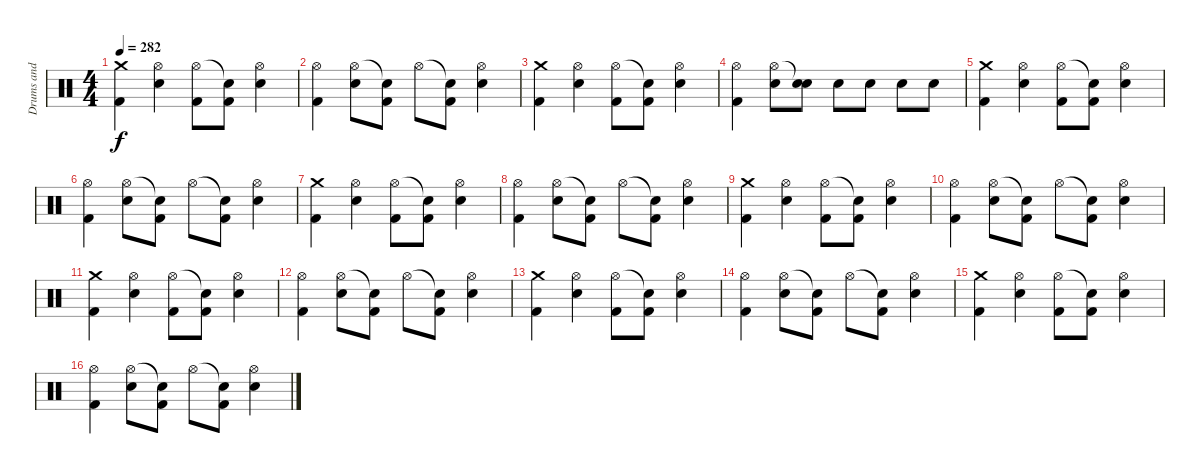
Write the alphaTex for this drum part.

\track ("Drums and Percussion" "Drums and ") {instrument percussion}
\staff {score}
\articulation defaults
\ts (4 4)
\tempo 282
\clef neutral
\ks c
("Crash medium (hit)" "Kick (hit) 2").4{dy f} ("Hi-Hat (open)" "Snare (hit) 2").4 ("Hi-Hat (open)" "Kick (hit) 2").8 ("Snare (hit)"{t} "Kick (hit) 2").8 ("Hi-Hat (open)" "Snare (hit) 2").4 |
("Hi-Hat (open)" "Kick (hit) 2").4 ("Hi-Hat (open)" "Snare (hit) 2").8 ("Snare (hit)"{t} "Kick (hit) 2").8 "Hi-Hat (open)".8 ("Snare (hit)"{t} "Kick (hit) 2").8 ("Hi-Hat (open)" "Snare (hit) 2").4 |
("Crash medium (hit)" "Kick (hit) 2").4 ("Hi-Hat (open)" "Snare (hit) 2").4 ("Hi-Hat (open)" "Kick (hit) 2").8 ("Snare (hit)"{t} "Kick (hit) 2").8 ("Hi-Hat (open)" "Snare (hit) 2").4 |
("Hi-Hat (open)" "Kick (hit) 2").4 ("Hi-Hat (open)" "Snare (hit) 2").8 ("Snare (hit)"{t} "Snare (hit) 2").8 "Snare (hit) 2".8 "Snare (hit) 2".8 "Snare (hit) 2".8 "Snare (hit) 2".8 |
("Crash medium (hit)" "Kick (hit) 2").4 ("Hi-Hat (open)" "Snare (hit) 2").4 ("Hi-Hat (open)" "Kick (hit) 2").8 ("Snare (hit)"{t} "Kick (hit) 2").8 ("Hi-Hat (open)" "Snare (hit) 2").4 |
("Hi-Hat (open)" "Kick (hit) 2").4 ("Hi-Hat (open)" "Snare (hit) 2").8 ("Snare (hit)"{t} "Kick (hit) 2").8 "Hi-Hat (open)".8 ("Snare (hit)"{t} "Kick (hit) 2").8 ("Hi-Hat (open)" "Snare (hit) 2").4 |
("Crash medium (hit)" "Kick (hit) 2").4 ("Hi-Hat (open)" "Snare (hit) 2").4 ("Hi-Hat (open)" "Kick (hit) 2").8 ("Snare (hit)"{t} "Kick (hit) 2").8 ("Hi-Hat (open)" "Snare (hit) 2").4 |
("Hi-Hat (open)" "Kick (hit) 2").4 ("Hi-Hat (open)" "Snare (hit) 2").8 ("Snare (hit)"{t} "Kick (hit) 2").8 "Hi-Hat (open)".8 ("Snare (hit)"{t} "Kick (hit) 2").8 ("Hi-Hat (open)" "Snare (hit) 2").4 |
("Crash medium (hit)" "Kick (hit) 2").4 ("Hi-Hat (open)" "Snare (hit) 2").4 ("Hi-Hat (open)" "Kick (hit) 2").8 ("Snare (hit)"{t} "Kick (hit) 2").8 ("Hi-Hat (open)" "Snare (hit) 2").4 |
("Hi-Hat (open)" "Kick (hit) 2").4 ("Hi-Hat (open)" "Snare (hit) 2").8 ("Snare (hit)"{t} "Kick (hit) 2").8 "Hi-Hat (open)".8 ("Snare (hit)"{t} "Kick (hit) 2").8 ("Hi-Hat (open)" "Snare (hit) 2").4 |
("Crash medium (hit)" "Kick (hit) 2").4 ("Hi-Hat (open)" "Snare (hit) 2").4 ("Hi-Hat (open)" "Kick (hit) 2").8 ("Snare (hit)"{t} "Kick (hit) 2").8 ("Hi-Hat (open)" "Snare (hit) 2").4 |
("Hi-Hat (open)" "Kick (hit) 2").4 ("Hi-Hat (open)" "Snare (hit) 2").8 ("Snare (hit)"{t} "Kick (hit) 2").8 "Hi-Hat (open)".8 ("Snare (hit)"{t} "Kick (hit) 2").8 ("Hi-Hat (open)" "Snare (hit) 2").4 |
("Crash medium (hit)" "Kick (hit) 2").4 ("Hi-Hat (open)" "Snare (hit) 2").4 ("Hi-Hat (open)" "Kick (hit) 2").8 ("Snare (hit)"{t} "Kick (hit) 2").8 ("Hi-Hat (open)" "Snare (hit) 2").4 |
("Hi-Hat (open)" "Kick (hit) 2").4 ("Hi-Hat (open)" "Snare (hit) 2").8 ("Snare (hit)"{t} "Kick (hit) 2").8 "Hi-Hat (open)".8 ("Snare (hit)"{t} "Kick (hit) 2").8 ("Hi-Hat (open)" "Snare (hit) 2").4 |
("Crash medium (hit)" "Kick (hit) 2").4 ("Hi-Hat (open)" "Snare (hit) 2").4 ("Hi-Hat (open)" "Kick (hit) 2").8 ("Snare (hit)"{t} "Kick (hit) 2").8 ("Hi-Hat (open)" "Snare (hit) 2").4 |
("Hi-Hat (open)" "Kick (hit) 2").4 ("Hi-Hat (open)" "Snare (hit) 2").8 ("Snare (hit)"{t} "Kick (hit) 2").8 "Hi-Hat (open)".8 ("Snare (hit)"{t} "Kick (hit) 2").8 ("Hi-Hat (open)" "Snare (hit) 2").4
